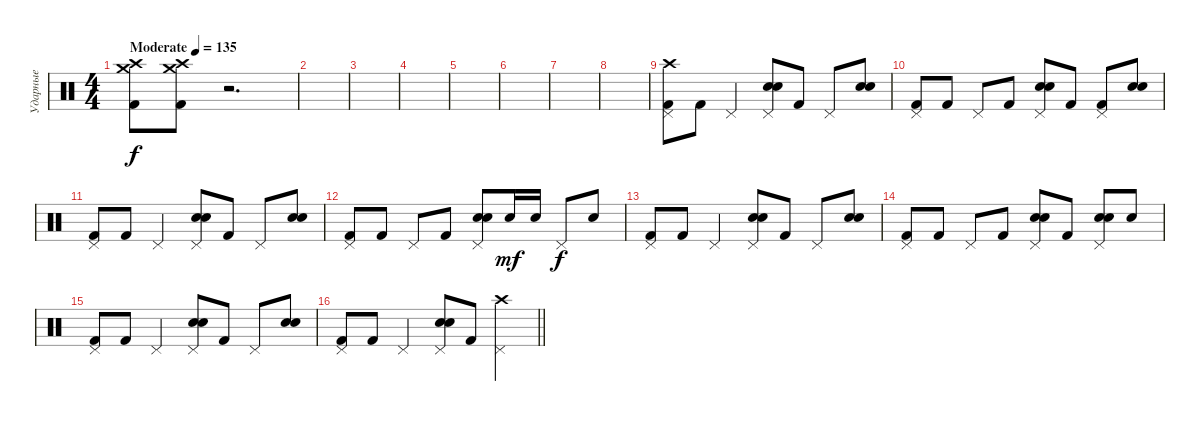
\track ("Ударные" "Ударные") {instrument percussion}
\staff {score}
\articulation defaults
\ts (4 4)
\tempo (135 "Moderate")
\clef neutral
\ks c
("Crash high (hit)" "Crash medium (hit)" "Kick (hit) 2").8{dy f} ("Crash high (hit)" "Crash medium (hit)" "Kick (hit) 2").8 r.2{d} |
|
|
|
|
|
|
|
("Pedal Hi-Hat (hit)" "Crash high (hit)" "Kick (hit) 2").8 "Kick (hit) 2".8 "Pedal Hi-Hat (hit)".4 ("Pedal Hi-Hat (hit)" "Electric Snare (hit)" "Snare (hit) 2").8 "Kick (hit) 2".8 "Pedal Hi-Hat (hit)".8 ("Electric Snare (hit)" "Snare (hit) 2").8 |
("Pedal Hi-Hat (hit)" "Kick (hit) 2").8 "Kick (hit) 2".8 "Pedal Hi-Hat (hit)".8 "Kick (hit) 2".8 ("Pedal Hi-Hat (hit)" "Electric Snare (hit)" "Snare (hit) 2").8 "Kick (hit) 2".8 ("Pedal Hi-Hat (hit)" "Kick (hit) 2").8 ("Electric Snare (hit)" "Snare (hit) 2").8 |
("Pedal Hi-Hat (hit)" "Kick (hit) 2").8 "Kick (hit) 2".8 "Pedal Hi-Hat (hit)".4 ("Pedal Hi-Hat (hit)" "Electric Snare (hit)" "Snare (hit) 2").8 "Kick (hit) 2".8 "Pedal Hi-Hat (hit)".8 ("Electric Snare (hit)" "Snare (hit) 2").8 |
("Pedal Hi-Hat (hit)" "Kick (hit) 2").8 "Kick (hit) 2".8 "Pedal Hi-Hat (hit)".8 "Kick (hit) 2".8 ("Pedal Hi-Hat (hit)" "Electric Snare (hit)" "Snare (hit) 2").8 "Electric Snare (hit)".16{dy mf} "Electric Snare (hit)".16 "Pedal Hi-Hat (hit)".8{dy f} "Electric Snare (hit)".8 |
("Pedal Hi-Hat (hit)" "Kick (hit) 2").8 "Kick (hit) 2".8 "Pedal Hi-Hat (hit)".4 ("Pedal Hi-Hat (hit)" "Electric Snare (hit)" "Snare (hit) 2").8 "Kick (hit) 2".8 "Pedal Hi-Hat (hit)".8 ("Electric Snare (hit)" "Snare (hit) 2").8 |
("Pedal Hi-Hat (hit)" "Kick (hit) 2").8 "Kick (hit) 2".8 "Pedal Hi-Hat (hit)".8 "Kick (hit) 2".8 ("Pedal Hi-Hat (hit)" "Electric Snare (hit)" "Snare (hit) 2").8 "Kick (hit) 2".8 ("Pedal Hi-Hat (hit)" "Electric Snare (hit)" "Snare (hit) 2").8 "Electric Snare (hit)".8 |
("Pedal Hi-Hat (hit)" "Kick (hit) 2").8 "Kick (hit) 2".8 "Pedal Hi-Hat (hit)".4 ("Pedal Hi-Hat (hit)" "Electric Snare (hit)" "Snare (hit) 2").8 "Kick (hit) 2".8 "Pedal Hi-Hat (hit)".8 ("Electric Snare (hit)" "Snare (hit) 2").8 |
\barLineRight lightlight
("Pedal Hi-Hat (hit)" "Kick (hit) 2").8 "Kick (hit) 2".8 "Pedal Hi-Hat (hit)".4 ("Pedal Hi-Hat (hit)" "Electric Snare (hit)" "Snare (hit) 2").8 "Kick (hit) 2".8 ("Pedal Hi-Hat (hit)" "Crash high (hit)").4
